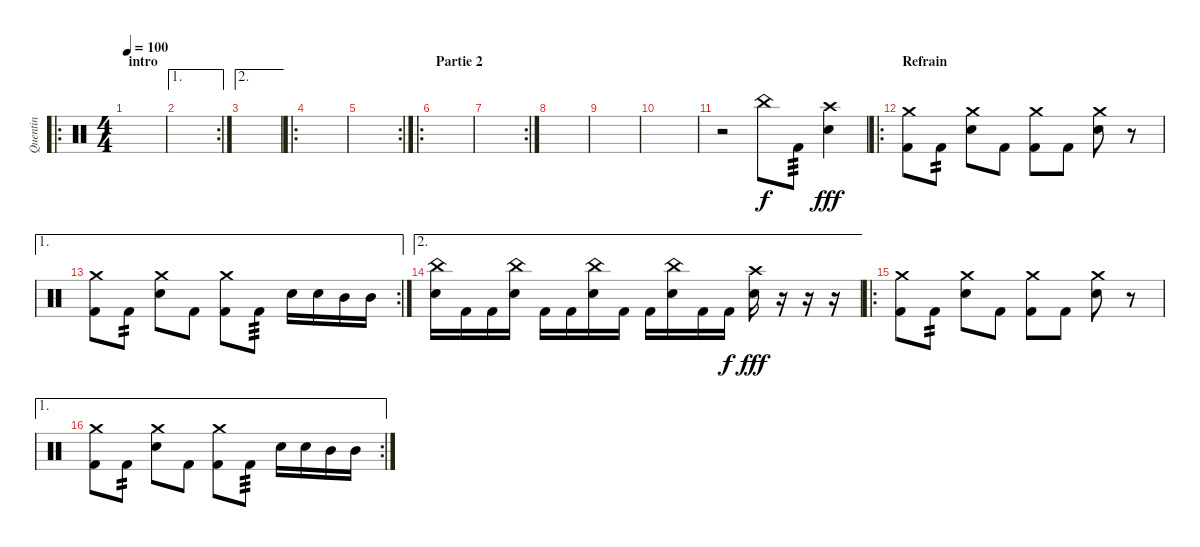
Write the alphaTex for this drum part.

\track ("Quentin" "Quentin") {instrument percussion}
\staff {score}
\articulation defaults
\ro
\ts (4 4)
\section ("" "intro")
\tempo 100
\clef neutral
\ks c
|
\ae 1
\rc 2
|
\ae 2
|
\ro
|
\rc 2
|
\ro
\section ("" "Partie 2")
|
\rc 2
|
|
|
|
r.2 "China (hit)".8 "Kick (hit) 2".8{tp 3 dy f} ("Crash high (hit)" "Electric Snare (hit)").4{dy fff} |
\ro
\section ("" "Refrain")
("Crash medium (hit)" "Kick (hit) 2").8 "Kick (hit) 2".8{tp 2} ("Crash medium (hit)" "Electric Snare (hit)").8 "Kick (hit) 2".8 ("Crash medium (hit)" "Kick (hit) 2").8 "Kick (hit) 2".8 ("Crash medium (hit)" "Electric Snare (hit)").8 r.8 |
\ae 1
\rc 2
("Crash medium (hit)" "Kick (hit) 2").8 "Kick (hit) 2".8{tp 2} ("Crash medium (hit)" "Electric Snare (hit)").8 "Kick (hit) 2".8 ("Crash medium (hit)" "Kick (hit) 2").8 "Kick (hit) 2".8{tp 3} "Electric Snare (hit)".16 "Electric Snare (hit)".16 "Mid Tom (hit)".16 "Mid Tom (hit)".16 |
\ae 2
("China (hit)" "Electric Snare (hit)").16 "Kick (hit) 2".16 "Kick (hit) 2".16 ("China (hit)" "Electric Snare (hit)").16 "Kick (hit) 2".16 "Kick (hit) 2".16 ("China (hit)" "Electric Snare (hit)").16 "Kick (hit) 2".16 "Kick (hit) 2".16 ("China (hit)" "Electric Snare (hit)").16 "Kick (hit) 2".16 "Kick (hit) 2".16{dy f} ("Crash high (hit)" "Electric Snare (hit)").16{dy fff} r.16 r.16 r.16 |
\ro
("Crash medium (hit)" "Kick (hit) 2").8 "Kick (hit) 2".8{tp 2} ("Crash medium (hit)" "Electric Snare (hit)").8 "Kick (hit) 2".8 ("Crash medium (hit)" "Kick (hit) 2").8 "Kick (hit) 2".8 ("Crash medium (hit)" "Electric Snare (hit)").8 r.8 |
\ae 1
\rc 2
("Crash medium (hit)" "Kick (hit) 2").8 "Kick (hit) 2".8{tp 2} ("Crash medium (hit)" "Electric Snare (hit)").8 "Kick (hit) 2".8 ("Crash medium (hit)" "Kick (hit) 2").8 "Kick (hit) 2".8{tp 3} "Electric Snare (hit)".16 "Electric Snare (hit)".16 "Mid Tom (hit)".16 "Mid Tom (hit)".16
